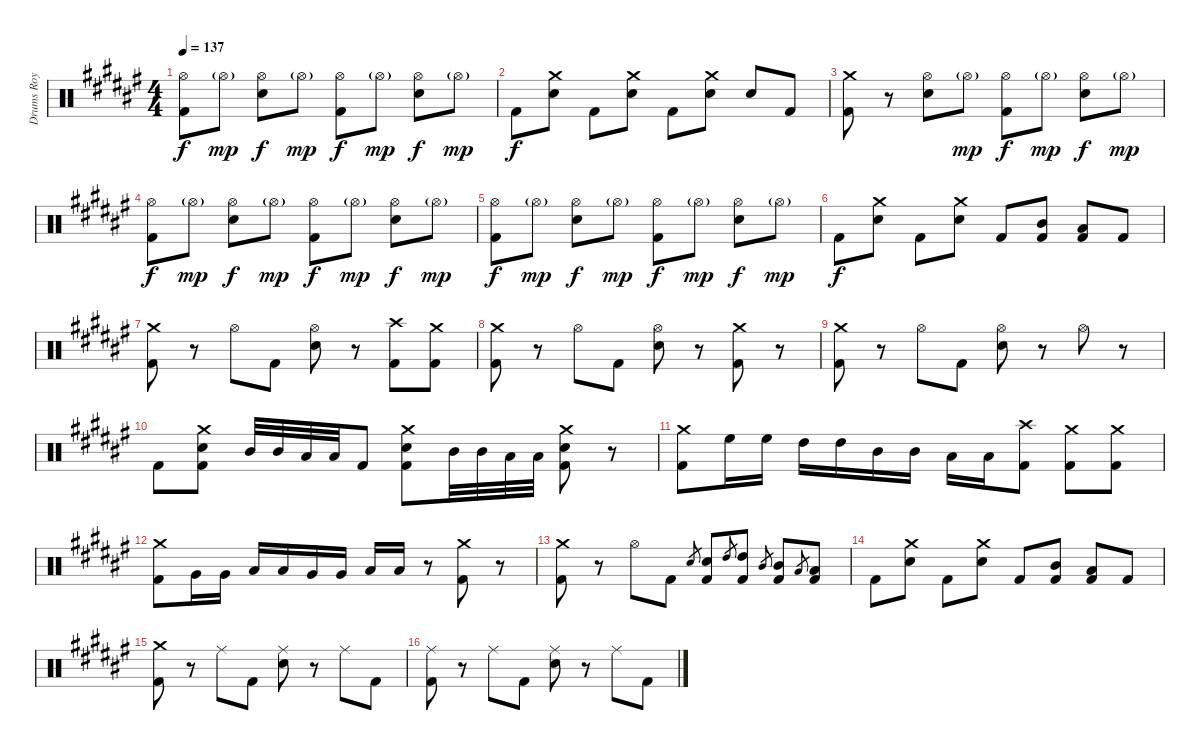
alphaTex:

\track ("Drums Roy mayorga" "Drums Roy ") {instrument percussion}
\staff {score}
\articulation defaults
\ts (4 4)
\tempo 137
\clef neutral
\ks d#minor
("Hi-Hat (open)" "Kick (hit) 2").8{dy f} "Hi-Hat (open)"{g}.8{dy mp} ("Hi-Hat (open)" "Electric Snare (hit)").8{dy f} "Hi-Hat (open)"{g}.8{dy mp} ("Hi-Hat (open)" "Kick (hit) 2").8{dy f} "Hi-Hat (open)"{g}.8{dy mp} ("Hi-Hat (open)" "Electric Snare (hit)").8{dy f} "Hi-Hat (open)"{g}.8{dy mp} |
"Kick (hit) 2".8{dy f} ("Crash medium (hit)" "Electric Snare (hit)").8 "Kick (hit) 2".8 ("Crash medium (hit)" "Electric Snare (hit)").8 "Kick (hit) 2".8 ("Crash medium (hit)" "Electric Snare (hit)").8 "Electric Snare (hit)".8 "Kick (hit) 2".8 |
("Crash medium (hit)" "Kick (hit) 2").8 r.8 ("Hi-Hat (open)" "Electric Snare (hit)").8 "Hi-Hat (open)"{g}.8{dy mp} ("Hi-Hat (open)" "Kick (hit) 2").8{dy f} "Hi-Hat (open)"{g}.8{dy mp} ("Hi-Hat (open)" "Electric Snare (hit)").8{dy f} "Hi-Hat (open)"{g}.8{dy mp} |
("Hi-Hat (open)" "Kick (hit) 2").8{dy f} "Hi-Hat (open)"{g}.8{dy mp} ("Hi-Hat (open)" "Electric Snare (hit)").8{dy f} "Hi-Hat (open)"{g}.8{dy mp} ("Hi-Hat (open)" "Kick (hit) 2").8{dy f} "Hi-Hat (open)"{g}.8{dy mp} ("Hi-Hat (open)" "Electric Snare (hit)").8{dy f} "Hi-Hat (open)"{g}.8{dy mp} |
("Hi-Hat (open)" "Kick (hit) 2").8{dy f} "Hi-Hat (open)"{g}.8{dy mp} ("Hi-Hat (open)" "Electric Snare (hit)").8{dy f} "Hi-Hat (open)"{g}.8{dy mp} ("Hi-Hat (open)" "Kick (hit) 2").8{dy f} "Hi-Hat (open)"{g}.8{dy mp} ("Hi-Hat (open)" "Electric Snare (hit)").8{dy f} "Hi-Hat (open)"{g}.8{dy mp} |
"Kick (hit) 2".8{dy f} ("Crash medium (hit)" "Electric Snare (hit)").8 "Kick (hit) 2".8 ("Crash medium (hit)" "Electric Snare (hit)").8 "Kick (hit) 2".8 ("Mid Tom (hit)" "Kick (hit) 2").8 ("Low Tom (hit)" "Kick (hit) 2").8 "Kick (hit) 2".8 |
("Crash medium (hit)" "Kick (hit) 2").8 r.8 "Hi-Hat (open)".8 "Kick (hit) 2".8 ("Hi-Hat (open)" "Electric Snare (hit)").8 r.8 ("Crash high (hit)" "Kick (hit) 2").8 ("Crash medium (hit)" "Kick (hit) 2").8 |
("Crash medium (hit)" "Kick (hit) 2").8 r.8 "Hi-Hat (open)".8 "Kick (hit) 2".8 ("Hi-Hat (open)" "Electric Snare (hit)").8 r.8 ("Crash medium (hit)" "Kick (hit) 2").8 r.8 |
("Crash medium (hit)" "Kick (hit) 2").8 r.8 "Hi-Hat (open)".8 "Kick (hit) 2".8 ("Hi-Hat (open)" "Electric Snare (hit)").8 r.8 "Hi-Hat (open)".8 r.8 |
"Kick (hit) 2".8 ("Crash medium (hit)" "Electric Snare (hit)" "Kick (hit) 2").8 "Mid Tom (hit)".32 "Mid Tom (hit)".32 "Low Tom (hit)".32 "Low Tom (hit)".32 "Kick (hit) 2".8 ("Crash medium (hit)" "Electric Snare (hit)" "Kick (hit) 2").8 "Mid Tom (hit)".32 "Mid Tom (hit)".32 "Low Tom (hit)".32 "Low Tom (hit)".32 ("Crash medium (hit)" "Electric Snare (hit)" "Kick (hit) 2").8 r.8 |
("Crash medium (hit)" "Kick (hit) 2").8 "High Floor Tom (hit)".16 "High Floor Tom (hit)".16 "High Tom (hit)".16 "High Tom (hit)".16 "Mid Tom (hit)".16 "Mid Tom (hit)".16 "Low Tom (hit)".16 "Low Tom (hit)".16 ("Crash high (hit)" "Kick (hit) 2").8 ("Crash medium (hit)" "Kick (hit) 2").8 ("Crash medium (hit)" "Kick (hit) 2").8 |
("Crash medium (hit)" "Kick (hit) 2").8 "Very Low Tom (hit)".16 "Very Low Tom (hit)".16 "Low Tom (hit)".16 "Low Tom (hit)".16 "Very Low Tom (hit)".16 "Very Low Tom (hit)".16 "Low Floor Tom (hit)".16 "Low Floor Tom (hit)".16 r.8 ("Crash medium (hit)" "Kick (hit) 2").8 r.8 |
("Crash medium (hit)" "Kick (hit) 2").8 r.8 "Hi-Hat (open)".8 "Kick (hit) 2".8 "Electric Snare (hit)".8{gr} ("Electric Snare (hit)" "Kick (hit) 2").8 "High Tom (hit)".8{gr} ("High Tom (hit)" "Kick (hit) 2").8 "Mid Tom (hit)".8{gr} ("Mid Tom (hit)" "Kick (hit) 2").8 "Low Tom (hit)".8{gr} ("Low Tom (hit)" "Kick (hit) 2").8 |
"Kick (hit) 2".8 ("Crash medium (hit)" "Electric Snare (hit)").8 "Kick (hit) 2".8 ("Crash medium (hit)" "Electric Snare (hit)").8 "Kick (hit) 2".8 ("Mid Tom (hit)" "Kick (hit) 2").8 ("Low Tom (hit)" "Kick (hit) 2").8 "Kick (hit) 2".8 |
("Crash medium (hit)" "Kick (hit) 2").8 r.8 "Ride (middle)".8 "Kick (hit) 2".8 ("Ride (middle)" "Electric Snare (hit)").8 r.8 "Ride (middle)".8 "Kick (hit) 2".8 |
("Ride (middle)" "Kick (hit) 2").8 r.8 "Ride (middle)".8 "Kick (hit) 2".8 ("Ride (middle)" "Electric Snare (hit)").8 r.8 "Ride (middle)".8 "Kick (hit) 2".8
